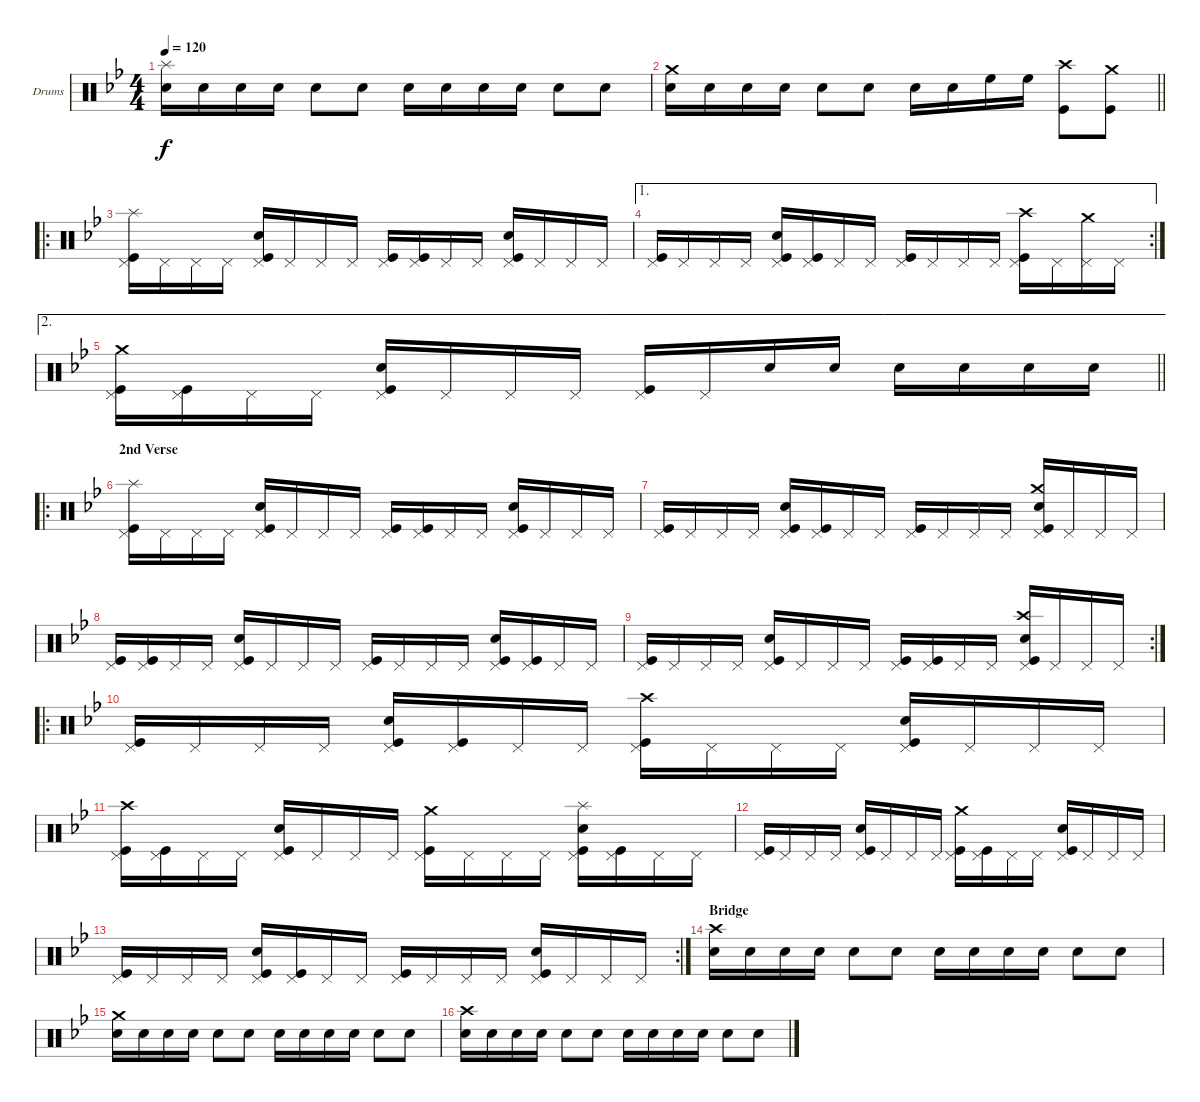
\bracketExtendMode groupsimilarinstruments
\firstSystemTrackNameOrientation horizontal
\otherSystemsTrackNameOrientation horizontal
\track ("Drumkit" "Drums") {instrument percussion}
\staff {score}
\articulation defaults
\ts (4 4)
\tempo 120
\clef neutral
\ks bb
("Splash (hit)" "Snare (hit) 2").16{dy f} "Snare (hit) 2".16 "Snare (hit) 2".16 "Snare (hit) 2".16 "Snare (hit) 2".8 "Snare (hit) 2".8 "Snare (hit) 2".16 "Snare (hit) 2".16 "Snare (hit) 2".16 "Snare (hit) 2".16 "Snare (hit) 2".8 "Snare (hit) 2".8 |
\barLineRight lightlight
("Crash medium (hit)" "Snare (hit) 2").16 "Snare (hit) 2".16 "Snare (hit) 2".16 "Snare (hit) 2".16 "Snare (hit) 2".8 "Snare (hit) 2".8 "Snare (hit) 2".16 "Snare (hit) 2".16 "High Floor Tom (hit)".16 "High Floor Tom (hit)".16 ("Crash high (hit)" "Kick (hit)").8 ("Crash medium (hit)" "Kick (hit)").8 |
\ro
("Splash (hit)" "Pedal Hi-Hat (hit)" "Kick (hit)").16 "Pedal Hi-Hat (hit)".16 "Pedal Hi-Hat (hit)".16 "Pedal Hi-Hat (hit)".16 ("Snare (hit) 2" "Pedal Hi-Hat (hit)" "Kick (hit)").16 "Pedal Hi-Hat (hit)".16 "Pedal Hi-Hat (hit)".16 "Pedal Hi-Hat (hit)".16 ("Pedal Hi-Hat (hit)" "Kick (hit)").16 ("Pedal Hi-Hat (hit)" "Kick (hit)").16 "Pedal Hi-Hat (hit)".16 "Pedal Hi-Hat (hit)".16 ("Snare (hit) 2" "Pedal Hi-Hat (hit)" "Kick (hit)").16 "Pedal Hi-Hat (hit)".16 "Pedal Hi-Hat (hit)".16 "Pedal Hi-Hat (hit)".16 |
\ae 1
\rc 2
("Pedal Hi-Hat (hit)" "Kick (hit)").16 "Pedal Hi-Hat (hit)".16 "Pedal Hi-Hat (hit)".16 "Pedal Hi-Hat (hit)".16 ("Snare (hit) 2" "Pedal Hi-Hat (hit)" "Kick (hit)").16 ("Pedal Hi-Hat (hit)" "Kick (hit)").16 "Pedal Hi-Hat (hit)".16 "Pedal Hi-Hat (hit)".16 ("Pedal Hi-Hat (hit)" "Kick (hit)").16 "Pedal Hi-Hat (hit)".16 "Pedal Hi-Hat (hit)".16 "Pedal Hi-Hat (hit)".16 ("Crash high (hit)" "Pedal Hi-Hat (hit)" "Kick (hit)").16 "Pedal Hi-Hat (hit)".16 ("Crash medium (hit)" "Pedal Hi-Hat (hit)").16 "Pedal Hi-Hat (hit)".16 |
\ae 2
\barLineRight lightlight
("Crash medium (hit)" "Pedal Hi-Hat (hit)" "Kick (hit)").16 ("Pedal Hi-Hat (hit)" "Kick (hit)").16 "Pedal Hi-Hat (hit)".16 "Pedal Hi-Hat (hit)".16 ("Snare (hit) 2" "Pedal Hi-Hat (hit)" "Kick (hit)").16 "Pedal Hi-Hat (hit)".16 "Pedal Hi-Hat (hit)".16 "Pedal Hi-Hat (hit)".16 ("Pedal Hi-Hat (hit)" "Kick (hit)").16 "Pedal Hi-Hat (hit)".16 "Snare (hit) 2".16 "Snare (hit) 2".16 "Snare (hit) 2".16 "Snare (hit) 2".16 "Snare (hit) 2".16 "Snare (hit) 2".16 |
\ro
\section ("" "2nd Verse")
("Splash (hit)" "Pedal Hi-Hat (hit)" "Kick (hit)").16 "Pedal Hi-Hat (hit)".16 "Pedal Hi-Hat (hit)".16 "Pedal Hi-Hat (hit)".16 ("Snare (hit) 2" "Pedal Hi-Hat (hit)" "Kick (hit)").16 "Pedal Hi-Hat (hit)".16 "Pedal Hi-Hat (hit)".16 "Pedal Hi-Hat (hit)".16 ("Pedal Hi-Hat (hit)" "Kick (hit)").16 ("Pedal Hi-Hat (hit)" "Kick (hit)").16 "Pedal Hi-Hat (hit)".16 "Pedal Hi-Hat (hit)".16 ("Snare (hit) 2" "Pedal Hi-Hat (hit)" "Kick (hit)").16 "Pedal Hi-Hat (hit)".16 "Pedal Hi-Hat (hit)".16 "Pedal Hi-Hat (hit)".16 |
("Pedal Hi-Hat (hit)" "Kick (hit)").16 "Pedal Hi-Hat (hit)".16 "Pedal Hi-Hat (hit)".16 "Pedal Hi-Hat (hit)".16 ("Snare (hit) 2" "Pedal Hi-Hat (hit)" "Kick (hit)").16 ("Pedal Hi-Hat (hit)" "Kick (hit)").16 "Pedal Hi-Hat (hit)".16 "Pedal Hi-Hat (hit)".16 ("Pedal Hi-Hat (hit)" "Kick (hit)").16 "Pedal Hi-Hat (hit)".16 "Pedal Hi-Hat (hit)".16 "Pedal Hi-Hat (hit)".16 ("Crash medium (hit)" "Snare (hit) 2" "Pedal Hi-Hat (hit)" "Kick (hit)").16 "Pedal Hi-Hat (hit)".16 "Pedal Hi-Hat (hit)".16 "Pedal Hi-Hat (hit)".16 |
("Pedal Hi-Hat (hit)" "Kick (hit)").16 ("Pedal Hi-Hat (hit)" "Kick (hit)").16 "Pedal Hi-Hat (hit)".16 "Pedal Hi-Hat (hit)".16 ("Snare (hit) 2" "Pedal Hi-Hat (hit)" "Kick (hit)").16 "Pedal Hi-Hat (hit)".16 "Pedal Hi-Hat (hit)".16 "Pedal Hi-Hat (hit)".16 ("Pedal Hi-Hat (hit)" "Kick (hit)").16 "Pedal Hi-Hat (hit)".16 "Pedal Hi-Hat (hit)".16 "Pedal Hi-Hat (hit)".16 ("Snare (hit) 2" "Pedal Hi-Hat (hit)" "Kick (hit)").16 ("Pedal Hi-Hat (hit)" "Kick (hit)").16 "Pedal Hi-Hat (hit)".16 "Pedal Hi-Hat (hit)".16 |
\rc 2
("Pedal Hi-Hat (hit)" "Kick (hit)").16 "Pedal Hi-Hat (hit)".16 "Pedal Hi-Hat (hit)".16 "Pedal Hi-Hat (hit)".16 ("Snare (hit) 2" "Pedal Hi-Hat (hit)" "Kick (hit)").16 "Pedal Hi-Hat (hit)".16 "Pedal Hi-Hat (hit)".16 "Pedal Hi-Hat (hit)".16 ("Pedal Hi-Hat (hit)" "Kick (hit)").16 ("Pedal Hi-Hat (hit)" "Kick (hit)").16 "Pedal Hi-Hat (hit)".16 "Pedal Hi-Hat (hit)".16 ("Crash high (hit)" "Snare (hit) 2" "Pedal Hi-Hat (hit)" "Kick (hit)").16 "Pedal Hi-Hat (hit)".16 "Pedal Hi-Hat (hit)".16 "Pedal Hi-Hat (hit)".16 |
\ro
("Pedal Hi-Hat (hit)" "Kick (hit)").16 "Pedal Hi-Hat (hit)".16 "Pedal Hi-Hat (hit)".16 "Pedal Hi-Hat (hit)".16 ("Snare (hit) 2" "Pedal Hi-Hat (hit)" "Kick (hit)").16 ("Pedal Hi-Hat (hit)" "Kick (hit)").16 "Pedal Hi-Hat (hit)".16 "Pedal Hi-Hat (hit)".16 ("Crash high (hit)" "Pedal Hi-Hat (hit)" "Kick (hit)").16 "Pedal Hi-Hat (hit)".16 "Pedal Hi-Hat (hit)".16 "Pedal Hi-Hat (hit)".16 ("Snare (hit) 2" "Pedal Hi-Hat (hit)" "Kick (hit)").16 "Pedal Hi-Hat (hit)".16 "Pedal Hi-Hat (hit)".16 "Pedal Hi-Hat (hit)".16 |
("Crash high (hit)" "Pedal Hi-Hat (hit)" "Kick (hit)").16 ("Pedal Hi-Hat (hit)" "Kick (hit)").16 "Pedal Hi-Hat (hit)".16 "Pedal Hi-Hat (hit)".16 ("Snare (hit) 2" "Pedal Hi-Hat (hit)" "Kick (hit)").16 "Pedal Hi-Hat (hit)".16 "Pedal Hi-Hat (hit)".16 "Pedal Hi-Hat (hit)".16 ("Crash medium (hit)" "Pedal Hi-Hat (hit)" "Kick (hit)").16 "Pedal Hi-Hat (hit)".16 "Pedal Hi-Hat (hit)".16 "Pedal Hi-Hat (hit)".16 ("Splash (hit)" "Snare (hit) 2" "Pedal Hi-Hat (hit)" "Kick (hit)").16 ("Pedal Hi-Hat (hit)" "Kick (hit)").16 "Pedal Hi-Hat (hit)".16 "Pedal Hi-Hat (hit)".16 |
("Pedal Hi-Hat (hit)" "Kick (hit)").16 "Pedal Hi-Hat (hit)".16 "Pedal Hi-Hat (hit)".16 "Pedal Hi-Hat (hit)".16 ("Snare (hit) 2" "Pedal Hi-Hat (hit)" "Kick (hit)").16 "Pedal Hi-Hat (hit)".16 "Pedal Hi-Hat (hit)".16 "Pedal Hi-Hat (hit)".16 ("Crash medium (hit)" "Pedal Hi-Hat (hit)" "Kick (hit)").16 ("Pedal Hi-Hat (hit)" "Kick (hit)").16 "Pedal Hi-Hat (hit)".16 "Pedal Hi-Hat (hit)".16 ("Snare (hit) 2" "Pedal Hi-Hat (hit)" "Kick (hit)").16 "Pedal Hi-Hat (hit)".16 "Pedal Hi-Hat (hit)".16 "Pedal Hi-Hat (hit)".16 |
\rc 2
("Pedal Hi-Hat (hit)" "Kick (hit)").16 "Pedal Hi-Hat (hit)".16 "Pedal Hi-Hat (hit)".16 "Pedal Hi-Hat (hit)".16 ("Snare (hit) 2" "Pedal Hi-Hat (hit)" "Kick (hit)").16 ("Pedal Hi-Hat (hit)" "Kick (hit)").16 "Pedal Hi-Hat (hit)".16 "Pedal Hi-Hat (hit)".16 ("Pedal Hi-Hat (hit)" "Kick (hit)").16 "Pedal Hi-Hat (hit)".16 "Pedal Hi-Hat (hit)".16 "Pedal Hi-Hat (hit)".16 ("Snare (hit) 2" "Pedal Hi-Hat (hit)" "Kick (hit)").16 "Pedal Hi-Hat (hit)".16 "Pedal Hi-Hat (hit)".16 "Pedal Hi-Hat (hit)".16 |
\section ("" "Bridge")
("Crash high (hit)" "Snare (hit) 2").16 "Snare (hit) 2".16 "Snare (hit) 2".16 "Snare (hit) 2".16 "Snare (hit) 2".8 "Snare (hit) 2".8 "Snare (hit) 2".16 "Snare (hit) 2".16 "Snare (hit) 2".16 "Snare (hit) 2".16 "Snare (hit) 2".8 "Snare (hit) 2".8 |
("Crash medium (hit)" "Snare (hit) 2").16 "Snare (hit) 2".16 "Snare (hit) 2".16 "Snare (hit) 2".16 "Snare (hit) 2".8 "Snare (hit) 2".8 "Snare (hit) 2".16 "Snare (hit) 2".16 "Snare (hit) 2".16 "Snare (hit) 2".16 "Snare (hit) 2".8 "Snare (hit) 2".8 |
("Crash high (hit)" "Snare (hit) 2").16 "Snare (hit) 2".16 "Snare (hit) 2".16 "Snare (hit) 2".16 "Snare (hit) 2".8 "Snare (hit) 2".8 "Snare (hit) 2".16 "Snare (hit) 2".16 "Snare (hit) 2".16 "Snare (hit) 2".16 "Snare (hit) 2".8 "Snare (hit) 2".8
